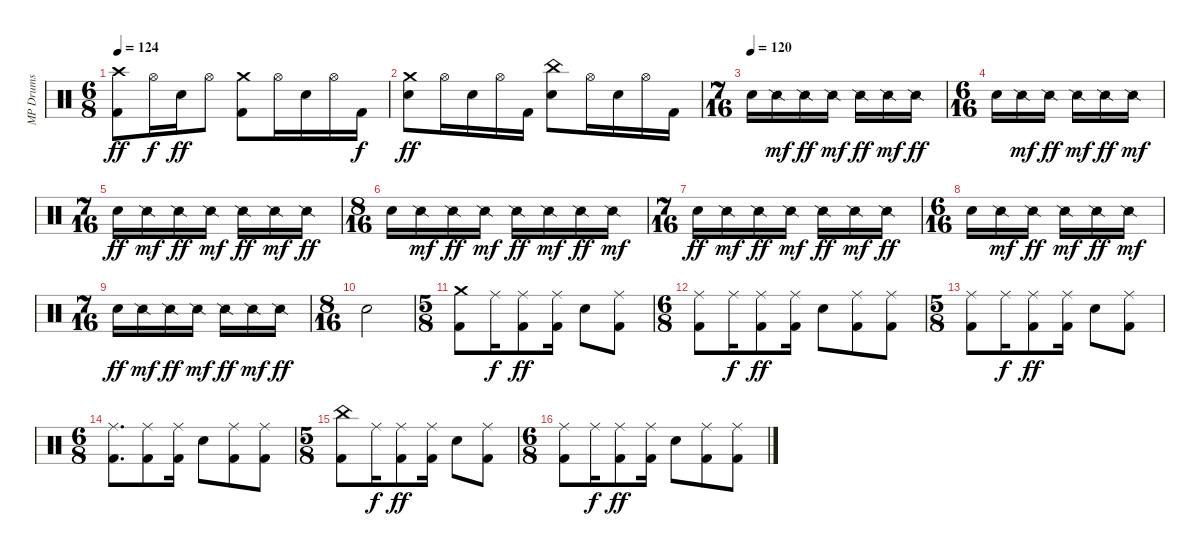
\track ("MP Drums" "MP Drums") {instrument percussion}
\staff {score}
\articulation defaults
\ts (6 8)
\tempo 124
\clef neutral
\ks c
("Crash high (hit)" "Kick (hit) 2").8{dy ff} "Hi-Hat (open)".16{dy f} "Snare (hit) 2".16{dy ff} "Hi-Hat (open)".8 ("Crash medium (hit)" "Kick (hit) 2").8 "Hi-Hat (open)".16 "Snare (hit) 2".16 "Hi-Hat (open)".16 "Kick (hit) 2".16{dy f} |
("Crash medium (hit)" "Snare (hit) 2").8{dy ff} "Hi-Hat (open)".16 "Snare (hit) 2".16 "Hi-Hat (open)".16 "Kick (hit) 2".16 ("China (hit)" "Snare (hit) 2").8 "Hi-Hat (open)".16 "Snare (hit) 2".16 "Hi-Hat (open)".16 "Kick (hit) 2".16 |
\ts (7 16)
\tempo (120)
"Snare (hit) 2".16 "Snare (side stick) 2".16{dy mf} "Snare (side stick) 2".16{dy ff} "Snare (side stick) 2".16{dy mf} "Snare (side stick) 2".16{dy ff} "Snare (side stick) 2".16{dy mf} "Snare (side stick) 2".16{dy ff} |
\ts (6 16)
"Snare (hit) 2".16 "Snare (side stick) 2".16{dy mf} "Snare (side stick) 2".16{dy ff} "Snare (side stick) 2".16{dy mf} "Snare (side stick) 2".16{dy ff} "Snare (side stick) 2".16{dy mf} |
\ts (7 16)
"Snare (hit) 2".16{dy ff} "Snare (side stick) 2".16{dy mf} "Snare (side stick) 2".16{dy ff} "Snare (side stick) 2".16{dy mf} "Snare (side stick) 2".16{dy ff} "Snare (side stick) 2".16{dy mf} "Snare (side stick) 2".16{dy ff} |
\ts (8 16)
"Snare (hit) 2".16 "Snare (side stick) 2".16{dy mf} "Snare (side stick) 2".16{dy ff} "Snare (side stick) 2".16{dy mf} "Snare (side stick) 2".16{dy ff} "Snare (side stick) 2".16{dy mf} "Snare (side stick) 2".16{dy ff} "Snare (side stick) 2".16{dy mf} |
\ts (7 16)
"Snare (hit) 2".16{dy ff} "Snare (side stick) 2".16{dy mf} "Snare (side stick) 2".16{dy ff} "Snare (side stick) 2".16{dy mf} "Snare (side stick) 2".16{dy ff} "Snare (side stick) 2".16{dy mf} "Snare (side stick) 2".16{dy ff} |
\ts (6 16)
"Snare (hit) 2".16 "Snare (side stick) 2".16{dy mf} "Snare (side stick) 2".16{dy ff} "Snare (side stick) 2".16{dy mf} "Snare (side stick) 2".16{dy ff} "Snare (side stick) 2".16{dy mf} |
\ts (7 16)
"Snare (hit) 2".16{dy ff} "Snare (side stick) 2".16{dy mf} "Snare (side stick) 2".16{dy ff} "Snare (side stick) 2".16{dy mf} "Snare (side stick) 2".16{dy ff} "Snare (side stick) 2".16{dy mf} "Snare (side stick) 2".16{dy ff} |
\ts (8 16)
"Snare (hit) 2".2 |
\ts (5 8)
("Crash medium (hit)" "Kick (hit) 2").8 "Ride (middle)".16{dy f} ("Ride (middle)" "Kick (hit) 2").8{dy ff} ("Ride (middle)" "Kick (hit) 2").16 "Snare (hit) 2".8 ("Ride (middle)" "Kick (hit) 2").8 |
\ts (6 8)
("Ride (middle)" "Kick (hit) 2").8 "Ride (middle)".16{dy f} ("Ride (middle)" "Kick (hit) 2").8{dy ff} ("Ride (middle)" "Kick (hit) 2").16 "Snare (hit) 2".8 ("Ride (middle)" "Kick (hit) 2").8 ("Ride (middle)" "Kick (hit) 2").8 |
\ts (5 8)
("Ride (middle)" "Kick (hit) 2").8 "Ride (middle)".16{dy f} ("Ride (middle)" "Kick (hit) 2").8{dy ff} ("Ride (middle)" "Kick (hit) 2").16 "Snare (hit) 2".8 ("Ride (middle)" "Kick (hit) 2").8 |
\ts (6 8)
("Ride (middle)" "Kick (hit) 2").8{d} ("Ride (middle)" "Kick (hit) 2").8 ("Ride (middle)" "Kick (hit) 2").16 "Snare (hit) 2".8 ("Ride (middle)" "Kick (hit) 2").8 ("Ride (middle)" "Kick (hit) 2").8 |
\ts (5 8)
("China (hit)" "Kick (hit) 2").8 "Ride (middle)".16{dy f} ("Ride (middle)" "Kick (hit) 2").8{dy ff} ("Ride (middle)" "Kick (hit) 2").16 "Snare (hit) 2".8 ("Ride (middle)" "Kick (hit) 2").8 |
\ts (6 8)
("Ride (middle)" "Kick (hit) 2").8 "Ride (middle)".16{dy f} ("Ride (middle)" "Kick (hit) 2").8{dy ff} ("Ride (middle)" "Kick (hit) 2").16 "Snare (hit) 2".8 ("Ride (middle)" "Kick (hit) 2").8 ("Ride (middle)" "Kick (hit) 2").8
